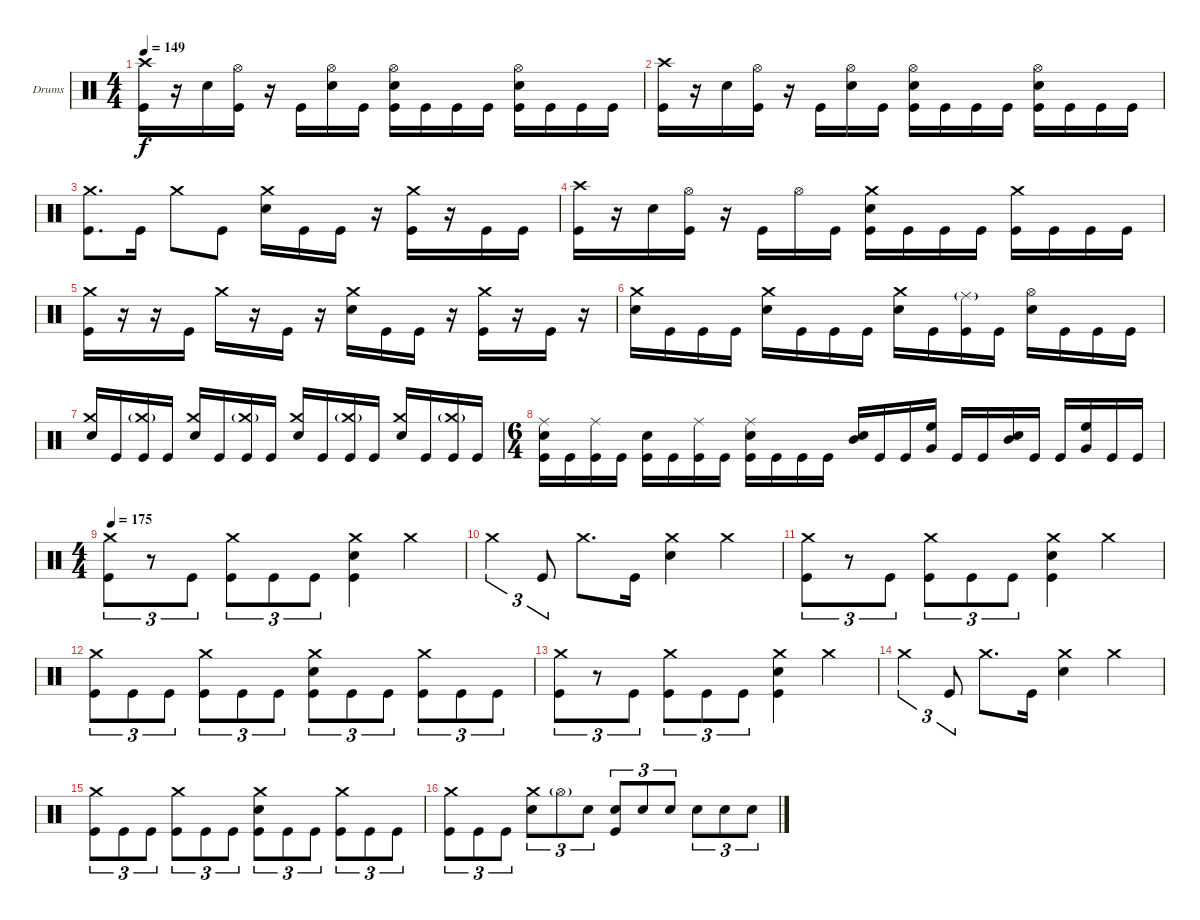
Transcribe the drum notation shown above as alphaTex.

\defaultSystemsLayout 4
\bracketExtendMode groupsimilarinstruments
\firstSystemTrackNameOrientation horizontal
\otherSystemsTrackNameOrientation horizontal
\track ("Moe Carlson" "Drums") {instrument percussion}
\staff {score}
\articulation defaults
\ts (4 4)
\tempo 149
\clef neutral
\ks c
("Crash high (hit)" "Kick (hit)").16{dy f} r.16 "Snare (hit) 2".16 ("Hi-Hat (open)" "Kick (hit)").16 r.16 "Kick (hit)".16 ("Snare (hit) 2" "Hi-Hat (open)").16 "Kick (hit)".16 ("Kick (hit)" "Snare (hit) 2" "Hi-Hat (open)").16 "Kick (hit)".16 "Kick (hit)".16 "Kick (hit)".16 ("Kick (hit)" "Snare (hit) 2" "Hi-Hat (open)").16 "Kick (hit)".16 "Kick (hit)".16 "Kick (hit)".16 |
("Crash high (hit)" "Kick (hit)").16 r.16 "Snare (hit) 2".16 ("Hi-Hat (open)" "Kick (hit)").16 r.16 "Kick (hit)".16 ("Snare (hit) 2" "Hi-Hat (open)").16 "Kick (hit)".16 ("Kick (hit)" "Snare (hit) 2" "Hi-Hat (open)").16 "Kick (hit)".16 "Kick (hit)".16 "Kick (hit)".16 ("Kick (hit)" "Snare (hit) 2" "Hi-Hat (open)").16 "Kick (hit)".16 "Kick (hit)".16 "Kick (hit)".16 |
("Crash medium (hit)" "Kick (hit)").8{d} "Kick (hit)".16 "Crash medium (hit)".8 "Kick (hit)".8 ("Snare (hit) 2" "Crash medium (hit)").16 "Kick (hit)".16 "Kick (hit)".16 r.16 ("Kick (hit)" "Crash medium (hit)").16 r.16 "Kick (hit)".16 "Kick (hit)".16 |
("Kick (hit)" "Crash high (hit)").16 r.16 "Snare (hit) 2".16 ("Hi-Hat (open)" "Kick (hit)").16 r.16 "Kick (hit)".16 "Hi-Hat (open)".16 "Kick (hit)".16 ("Kick (hit)" "Snare (hit) 2" "Crash medium (hit)").16 "Kick (hit)".16 "Kick (hit)".16 "Kick (hit)".16 ("Kick (hit)" "Crash medium (hit)").16 "Kick (hit)".16 "Kick (hit)".16 "Kick (hit)".16 |
("Crash medium (hit)" "Kick (hit)").16 r.16 r.16 "Kick (hit)".16 "Crash medium (hit)".16 r.16 "Kick (hit)".16 r.16 ("Snare (hit) 2" "Crash medium (hit)").16 "Kick (hit)".16 "Kick (hit)".16 r.16 ("Kick (hit)" "Crash medium (hit)").16 r.16 "Kick (hit)".16 r.16 |
("Crash medium (hit)" "Snare (hit) 2").16 "Kick (hit)".16 "Kick (hit)".16 "Kick (hit)".16 ("Snare (hit) 2" "Crash medium (hit)").16 "Kick (hit)".16 "Kick (hit)".16 "Kick (hit)".16 ("Snare (hit) 2" "Crash medium (hit)").16 "Kick (hit)".16 ("Kick (hit)" "Ride (middle)"{g}).16 "Kick (hit)".16 ("Hi-Hat (open)" "Snare (hit) 2").16 "Kick (hit)".16 "Kick (hit)".16 "Kick (hit)".16 |
("Snare (hit) 2" "Crash medium (hit)").16{beam invert} "Kick (hit)".16 ("Kick (hit)" "Crash medium (hit)"{g}).16 "Kick (hit)".16 ("Snare (hit) 2" "Crash medium (hit)").16{beam invert} "Kick (hit)".16 ("Kick (hit)" "Crash medium (hit)"{g}).16 "Kick (hit)".16 ("Snare (hit) 2" "Crash medium (hit)").16{beam invert} "Kick (hit)".16 ("Kick (hit)" "Crash medium (hit)"{g}).16 "Kick (hit)".16 ("Snare (hit) 2" "Crash medium (hit)").16{beam invert} "Kick (hit)".16 ("Kick (hit)" "Crash medium (hit)"{g}).16 "Kick (hit)".16 |
\ts (6 4)
("Kick (hit)" "Ride (middle)" "Snare (hit) 2").16 "Kick (hit)".16 ("Kick (hit)" "Ride (middle)").16 "Kick (hit)".16 ("Kick (hit)" "Snare (hit) 2").16 "Kick (hit)".16 ("Kick (hit)" "Ride (middle)").16 "Kick (hit)".16 ("Kick (hit)" "Ride (middle)" "Snare (hit) 2").16 "Kick (hit)".16 "Kick (hit)".16 "Kick (hit)".16 ("Snare (hit) 2" "Mid Tom (hit)").16 "Kick (hit)".16 "Kick (hit)".16 ("Very Low Tom (hit)" "High Floor Tom (hit)").16 "Kick (hit)".16 "Kick (hit)".16 ("Snare (hit) 2" "Mid Tom (hit)").16 "Kick (hit)".16 "Kick (hit)".16 ("Very Low Tom (hit)" "High Floor Tom (hit)").16 "Kick (hit)".16 "Kick (hit)".16 |
\ts (4 4)
\tempo (175 0.00625)
("Crash medium (hit)" "Kick (hit)").8{tu (3 2)} r.8{tu (3 2)} "Kick (hit)".8{tu (3 2)} ("Kick (hit)" "Crash medium (hit)").8{tu (3 2)} "Kick (hit)".8{tu (3 2)} "Kick (hit)".8{tu (3 2)} ("Kick (hit)" "Snare (hit) 2" "Crash medium (hit)").4 "Crash medium (hit)".4 |
"Crash medium (hit)".4{tu (3 2)} "Kick (hit)".8{tu (3 2)} "Crash medium (hit)".8{d} "Kick (hit)".16 ("Snare (hit) 2" "Crash medium (hit)").4 "Crash medium (hit)".4 |
("Crash medium (hit)" "Kick (hit)").8{tu (3 2)} r.8{tu (3 2)} "Kick (hit)".8{tu (3 2)} ("Kick (hit)" "Crash medium (hit)").8{tu (3 2)} "Kick (hit)".8{tu (3 2)} "Kick (hit)".8{tu (3 2)} ("Kick (hit)" "Snare (hit) 2" "Crash medium (hit)").4 "Crash medium (hit)".4 |
("Kick (hit)" "Crash medium (hit)").8{tu (3 2)} "Kick (hit)".8{tu (3 2)} "Kick (hit)".8{tu (3 2)} ("Kick (hit)" "Crash medium (hit)").8{tu (3 2)} "Kick (hit)".8{tu (3 2)} "Kick (hit)".8{tu (3 2)} ("Kick (hit)" "Crash medium (hit)" "Snare (hit) 2").8{tu (3 2)} "Kick (hit)".8{tu (3 2)} "Kick (hit)".8{tu (3 2)} ("Kick (hit)" "Crash medium (hit)").8{tu (3 2)} "Kick (hit)".8{tu (3 2)} "Kick (hit)".8{tu (3 2)} |
("Crash medium (hit)" "Kick (hit)").8{tu (3 2)} r.8{tu (3 2)} "Kick (hit)".8{tu (3 2)} ("Kick (hit)" "Crash medium (hit)").8{tu (3 2)} "Kick (hit)".8{tu (3 2)} "Kick (hit)".8{tu (3 2)} ("Kick (hit)" "Snare (hit) 2" "Crash medium (hit)").4 "Crash medium (hit)".4 |
"Crash medium (hit)".4{tu (3 2)} "Kick (hit)".8{tu (3 2)} "Crash medium (hit)".8{d} "Kick (hit)".16 ("Snare (hit) 2" "Crash medium (hit)").4 "Crash medium (hit)".4 |
("Kick (hit)" "Crash medium (hit)").8{tu (3 2)} "Kick (hit)".8{tu (3 2)} "Kick (hit)".8{tu (3 2)} ("Kick (hit)" "Crash medium (hit)").8{tu (3 2)} "Kick (hit)".8{tu (3 2)} "Kick (hit)".8{tu (3 2)} ("Kick (hit)" "Crash medium (hit)" "Snare (hit) 2").8{tu (3 2)} "Kick (hit)".8{tu (3 2)} "Kick (hit)".8{tu (3 2)} ("Kick (hit)" "Crash medium (hit)").8{tu (3 2)} "Kick (hit)".8{tu (3 2)} "Kick (hit)".8{tu (3 2)} |
("Kick (hit)" "Crash medium (hit)").8{tu (3 2)} "Kick (hit)".8{tu (3 2)} "Kick (hit)".8{tu (3 2)} ("Crash medium (hit)" "Snare (hit) 2").8{tu (3 2)} "Hi-Hat (open)"{g}.8{tu (3 2)} "Snare (hit) 2".8{tu (3 2)} ("Snare (hit) 2" "Kick (hit)").8{tu (3 2)} "Snare (hit) 2".8{tu (3 2)} "Snare (hit) 2".8{tu (3 2)} "Snare (hit) 2".8{tu (3 2)} "Snare (hit) 2".8{tu (3 2)} "Snare (hit) 2".8{tu (3 2)}
